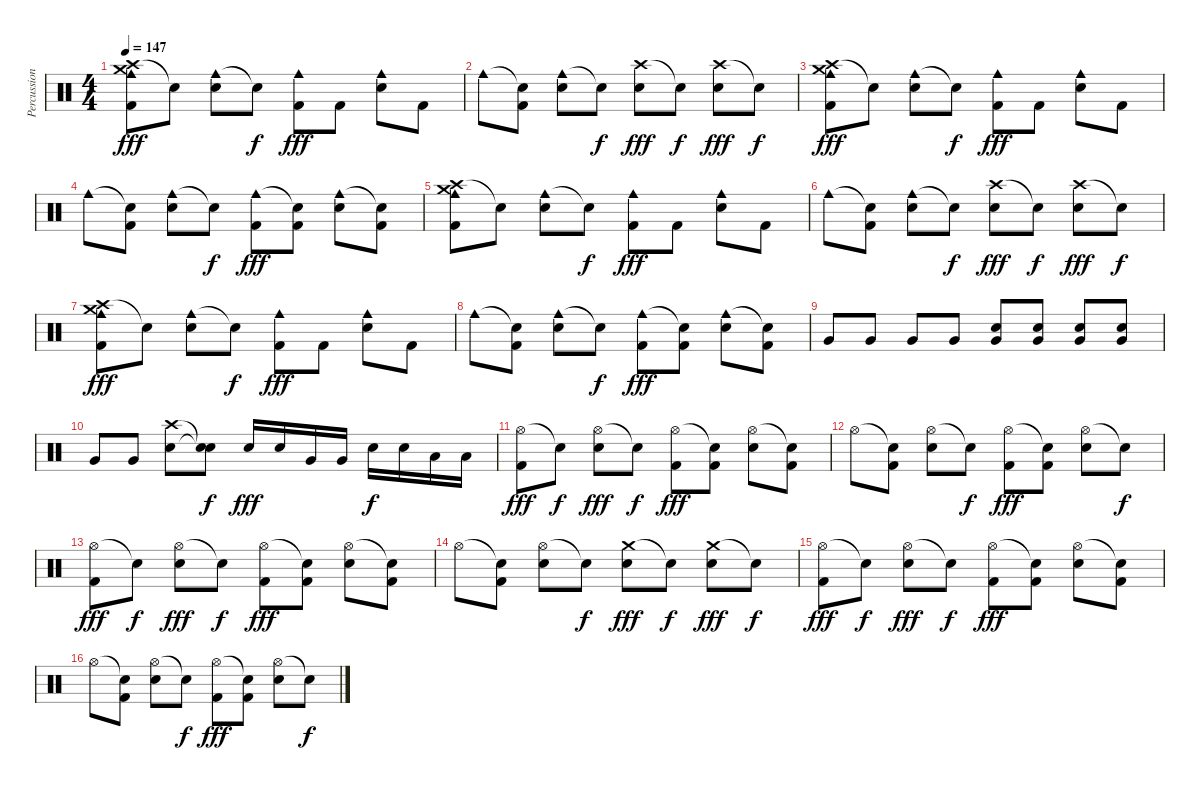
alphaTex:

\track ("Percussion" "Percussion") {instrument percussion}
\staff {score}
\articulation defaults
\ts (4 4)
\tempo 147
\clef neutral
\ks c
("Crash high (hit)" "Crash medium (hit)" "Cowbell medium (hit)" "Kick (hit) 2").8{dy fff} "Snare (hit)"{t}.8 ("Cowbell medium (hit)" "Electric Snare (hit)").8 "Snare (hit)"{t}.8{dy f} ("Cowbell medium (hit)" "Kick (hit) 2").8{dy fff} "Kick (hit) 2".8 ("Cowbell medium (hit)" "Electric Snare (hit)").8 "Kick (hit) 2".8 |
"Cowbell medium (hit)".8 ("Snare (hit)"{t} "Kick (hit) 2").8 ("Cowbell medium (hit)" "Electric Snare (hit)").8 "Snare (hit)"{t}.8{dy f} ("Crash high (hit)" "Electric Snare (hit)").8{dy fff} "Snare (hit)"{t}.8{dy f} ("Crash high (hit)" "Electric Snare (hit)").8{dy fff} "Snare (hit)"{t}.8{dy f} |
("Crash high (hit)" "Crash medium (hit)" "Cowbell medium (hit)" "Kick (hit) 2").8{dy fff} "Snare (hit)"{t}.8 ("Cowbell medium (hit)" "Electric Snare (hit)").8 "Snare (hit)"{t}.8{dy f} ("Cowbell medium (hit)" "Kick (hit) 2").8{dy fff} "Kick (hit) 2".8 ("Cowbell medium (hit)" "Electric Snare (hit)").8 "Kick (hit) 2".8 |
"Cowbell medium (hit)".8 ("Snare (hit)"{t} "Kick (hit) 2").8 ("Cowbell medium (hit)" "Electric Snare (hit)").8 "Snare (hit)"{t}.8{dy f} ("Cowbell medium (hit)" "Kick (hit) 2").8{dy fff} ("Snare (hit)"{t} "Kick (hit) 2").8 ("Cowbell medium (hit)" "Electric Snare (hit)").8 ("Snare (hit)"{t} "Kick (hit) 2").8 |
("Crash high (hit)" "Crash medium (hit)" "Cowbell medium (hit)" "Kick (hit) 2").8 "Snare (hit)"{t}.8 ("Cowbell medium (hit)" "Electric Snare (hit)").8 "Snare (hit)"{t}.8{dy f} ("Cowbell medium (hit)" "Kick (hit) 2").8{dy fff} "Kick (hit) 2".8 ("Cowbell medium (hit)" "Electric Snare (hit)").8 "Kick (hit) 2".8 |
"Cowbell medium (hit)".8 ("Snare (hit)"{t} "Kick (hit) 2").8 ("Cowbell medium (hit)" "Electric Snare (hit)").8 "Snare (hit)"{t}.8{dy f} ("Crash high (hit)" "Electric Snare (hit)").8{dy fff} "Snare (hit)"{t}.8{dy f} ("Crash high (hit)" "Electric Snare (hit)").8{dy fff} "Snare (hit)"{t}.8{dy f} |
("Crash high (hit)" "Crash medium (hit)" "Cowbell medium (hit)" "Kick (hit) 2").8{dy fff} "Snare (hit)"{t}.8 ("Cowbell medium (hit)" "Electric Snare (hit)").8 "Snare (hit)"{t}.8{dy f} ("Cowbell medium (hit)" "Kick (hit) 2").8{dy fff} "Kick (hit) 2".8 ("Cowbell medium (hit)" "Electric Snare (hit)").8 "Kick (hit) 2".8 |
"Cowbell medium (hit)".8 ("Snare (hit)"{t} "Kick (hit) 2").8 ("Cowbell medium (hit)" "Electric Snare (hit)").8 "Snare (hit)"{t}.8{dy f} ("Cowbell medium (hit)" "Kick (hit) 2").8{dy fff} ("Snare (hit)"{t} "Kick (hit) 2").8 ("Cowbell medium (hit)" "Electric Snare (hit)").8 ("Snare (hit)"{t} "Kick (hit) 2").8 |
"Very Low Tom (hit)".8 "Very Low Tom (hit)".8 "Very Low Tom (hit)".8 "Very Low Tom (hit)".8 ("Electric Snare (hit)" "Very Low Tom (hit)").8 ("Electric Snare (hit)" "Very Low Tom (hit)").8 ("Electric Snare (hit)" "Very Low Tom (hit)").8 ("Electric Snare (hit)" "Very Low Tom (hit)").8 |
"Very Low Tom (hit)".8 "Very Low Tom (hit)".8 ("Electric Snare (hit)" "Crash high (hit)").8 ("Snare (hit)"{t} "Snare (hit)"{t}).8{dy f} "Electric Snare (hit)".16{dy fff} "Electric Snare (hit)".16 "Very Low Tom (hit)".16 "Very Low Tom (hit)".16 "Electric Snare (hit)".16{dy f} "Electric Snare (hit)".16 "Low Tom (hit)".16 "Low Tom (hit)".16 |
("Hi-Hat (open)" "Kick (hit) 2").8{dy fff} "Snare (hit)"{t}.8{dy f} ("Hi-Hat (open)" "Electric Snare (hit)").8{dy fff} "Snare (hit)"{t}.8{dy f} ("Hi-Hat (open)" "Kick (hit) 2").8{dy fff} ("Snare (hit)"{t} "Kick (hit) 2").8 ("Hi-Hat (open)" "Electric Snare (hit)").8 ("Snare (hit)"{t} "Kick (hit) 2").8 |
"Hi-Hat (open)".8 ("Snare (hit)"{t} "Kick (hit) 2").8 ("Hi-Hat (open)" "Electric Snare (hit)").8 "Snare (hit)"{t}.8{dy f} ("Hi-Hat (open)" "Kick (hit) 2").8{dy fff} ("Snare (hit)"{t} "Kick (hit) 2").8 ("Hi-Hat (open)" "Electric Snare (hit)").8 "Snare (hit)"{t}.8{dy f} |
("Hi-Hat (open)" "Kick (hit) 2").8{dy fff} "Snare (hit)"{t}.8{dy f} ("Hi-Hat (open)" "Electric Snare (hit)").8{dy fff} "Snare (hit)"{t}.8{dy f} ("Hi-Hat (open)" "Kick (hit) 2").8{dy fff} ("Snare (hit)"{t} "Kick (hit) 2").8 ("Hi-Hat (open)" "Electric Snare (hit)").8 ("Snare (hit)"{t} "Kick (hit) 2").8 |
"Hi-Hat (open)".8 ("Snare (hit)"{t} "Kick (hit) 2").8 ("Hi-Hat (open)" "Electric Snare (hit)").8 "Snare (hit)"{t}.8{dy f} ("Crash medium (hit)" "Electric Snare (hit)").8{dy fff} "Snare (hit)"{t}.8{dy f} ("Crash medium (hit)" "Electric Snare (hit)").8{dy fff} "Snare (hit)"{t}.8{dy f} |
("Hi-Hat (open)" "Kick (hit) 2").8{dy fff} "Snare (hit)"{t}.8{dy f} ("Hi-Hat (open)" "Electric Snare (hit)").8{dy fff} "Snare (hit)"{t}.8{dy f} ("Hi-Hat (open)" "Kick (hit) 2").8{dy fff} ("Snare (hit)"{t} "Kick (hit) 2").8 ("Hi-Hat (open)" "Electric Snare (hit)").8 ("Snare (hit)"{t} "Kick (hit) 2").8 |
"Hi-Hat (open)".8 ("Snare (hit)"{t} "Kick (hit) 2").8 ("Hi-Hat (open)" "Electric Snare (hit)").8 "Snare (hit)"{t}.8{dy f} ("Hi-Hat (open)" "Kick (hit) 2").8{dy fff} ("Snare (hit)"{t} "Kick (hit) 2").8 ("Hi-Hat (open)" "Electric Snare (hit)").8 "Snare (hit)"{t}.8{dy f}
